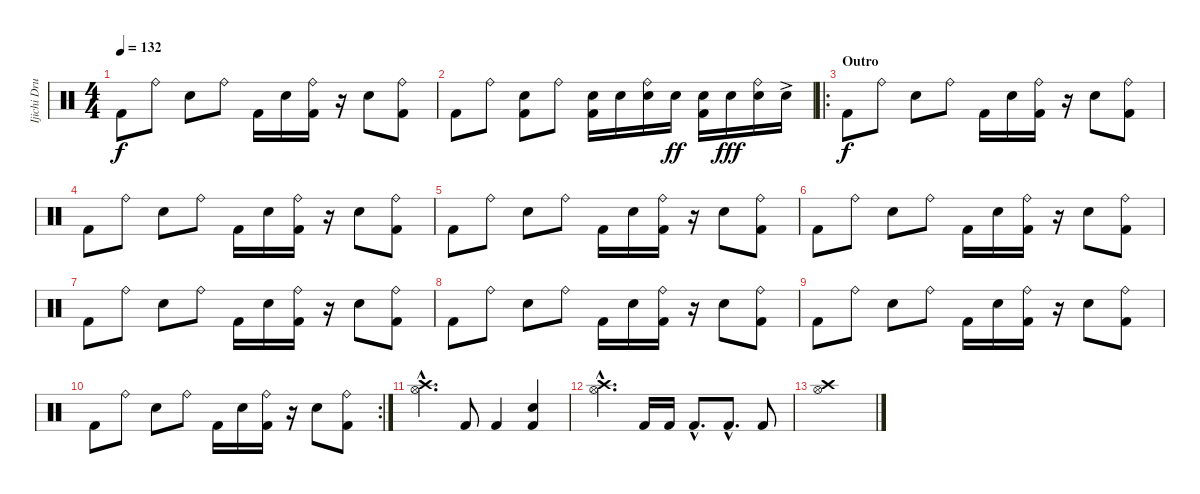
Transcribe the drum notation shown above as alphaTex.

\track ("Ijichi Drums" "Ijichi Dru") {instrument percussion}
\staff {score}
\articulation defaults
\ts (4 4)
\tempo 132
\clef neutral
\ks c "Kick (hit) 2".8{dy f} "Ride (bell)".8 "Snare (hit) 2".8 "Ride (bell)".8 "Kick (hit) 2".16 "Snare (hit) 2".16
("Ride (bell)" "Kick (hit) 2").16 r.16 "Snare (hit) 2".8 ("Ride (bell)" "Kick (hit) 2").8 |
"Kick (hit) 2".8 "Ride (bell)".8 ("Snare (hit) 2" "Kick (hit) 2").8 "Ride (bell)".8 ("Snare (hit) 2" "Kick (hit) 2").16 "Snare (hit) 2".16 ("Ride (bell)" "Snare (hit) 2").16 "Snare (hit) 2".16{dy ff} ("Snare (hit) 2" "Kick (hit) 2").16 "Snare (hit) 2".16{dy fff} ("Ride (bell)" "Snare (hit) 2").16 "Snare (hit) 2"{ac}.16 |
\ro
\section ("" "Outro")
"Kick (hit) 2".8{dy f} "Ride (bell)".8 "Snare (hit) 2".8 "Ride (bell)".8 "Kick (hit) 2".16 "Snare (hit) 2".16 ("Ride (bell)" "Kick (hit) 2").16 r.16 "Snare (hit) 2".8 ("Ride (bell)" "Kick (hit) 2").8 |
"Kick (hit) 2".8 "Ride (bell)".8 "Snare (hit) 2".8 "Ride (bell)".8 "Kick (hit) 2".16 "Snare (hit) 2".16 ("Ride (bell)" "Kick (hit) 2").16 r.16 "Snare (hit) 2".8 ("Ride (bell)" "Kick (hit) 2").8 |
"Kick (hit) 2".8 "Ride (bell)".8 "Snare (hit) 2".8 "Ride (bell)".8 "Kick (hit) 2".16 "Snare (hit) 2".16 ("Ride (bell)" "Kick (hit) 2").16 r.16 "Snare (hit) 2".8 ("Ride (bell)" "Kick (hit) 2").8 |
"Kick (hit) 2".8 "Ride (bell)".8 "Snare (hit) 2".8 "Ride (bell)".8 "Kick (hit) 2".16 "Snare (hit) 2".16 ("Ride (bell)" "Kick (hit) 2").16 r.16 "Snare (hit) 2".8 ("Ride (bell)" "Kick (hit) 2").8 |
"Kick (hit) 2".8 "Ride (bell)".8 "Snare (hit) 2".8 "Ride (bell)".8 "Kick (hit) 2".16 "Snare (hit) 2".16 ("Ride (bell)" "Kick (hit) 2").16 r.16 "Snare (hit) 2".8 ("Ride (bell)" "Kick (hit) 2").8 |
"Kick (hit) 2".8 "Ride (bell)".8 "Snare (hit) 2".8 "Ride (bell)".8 "Kick (hit) 2".16 "Snare (hit) 2".16 ("Ride (bell)" "Kick (hit) 2").16 r.16 "Snare (hit) 2".8 ("Ride (bell)" "Kick (hit) 2").8 |
"Kick (hit) 2".8 "Ride (bell)".8 "Snare (hit) 2".8 "Ride (bell)".8 "Kick (hit) 2".16 "Snare (hit) 2".16 ("Ride (bell)" "Kick (hit) 2").16 r.16 "Snare (hit) 2".8 ("Ride (bell)" "Kick (hit) 2").8 |
\rc 2 "Kick (hit) 2".8 "Ride (bell)".8 "Snare (hit) 2".8 "Ride (bell)".8 "Kick (hit) 2".16 "Snare (hit) 2".16
("Ride (bell)" "Kick (hit) 2").16 r.16 "Snare (hit) 2".8 ("Ride (bell)" "Kick (hit) 2").8 |
("Crash high (hit)"{hac} "Hi-Hat (open)"{hac}).4{d} "Kick (hit) 2".8 "Kick (hit) 2".4 ("Snare (hit) 2" "Kick (hit) 2").4 |
("Crash high (hit)"{hac} "Hi-Hat (open)"{hac}).4{d} "Kick (hit) 2".16 "Kick (hit) 2".16 "Kick (hit) 2"{hac}.8{d} "Kick (hit) 2"{hac}.8{d} "Kick (hit) 2".8 |
("Crash high (hit)" "Hi-Hat (open)").1
